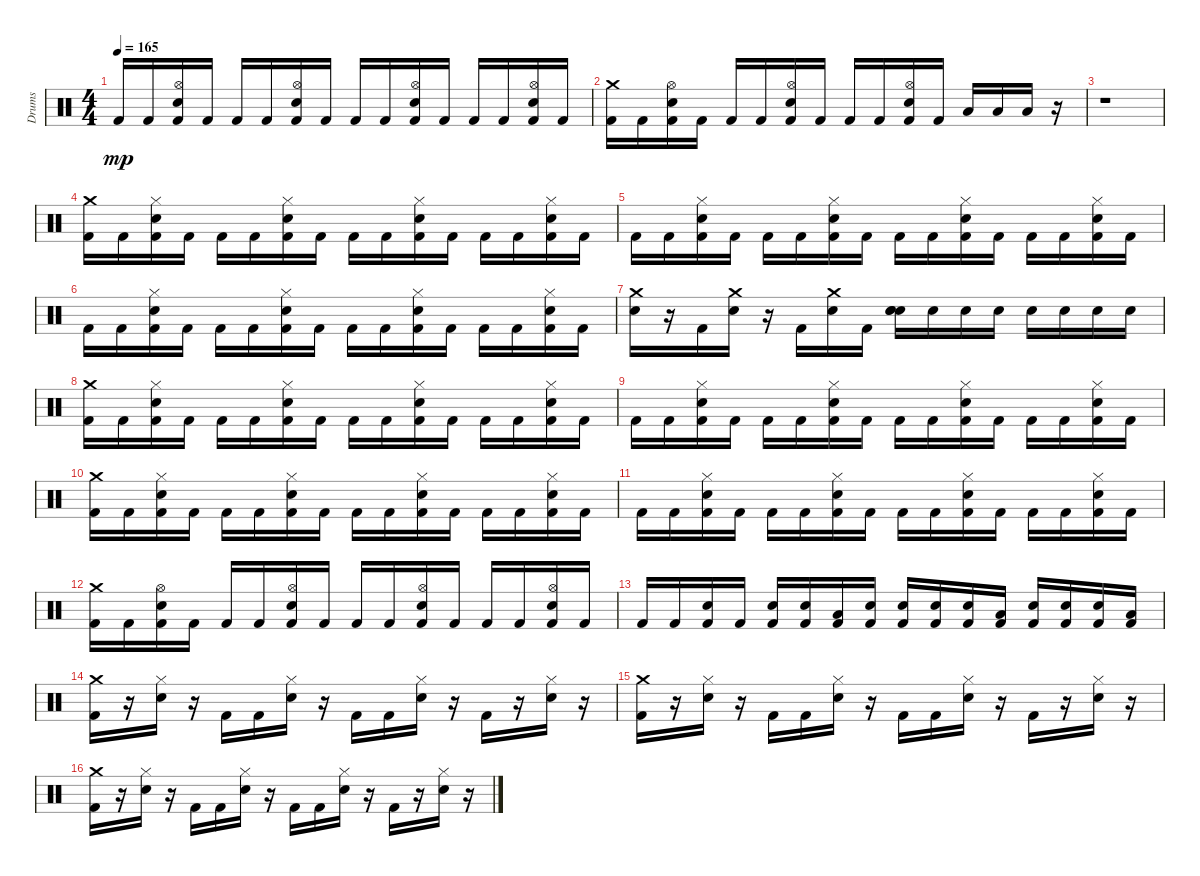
\track ("Drums" "Drums") {instrument percussion}
\staff {score}
\articulation defaults
\ts (4 4)
\tempo 165
\clef neutral
\ks c "Kick (hit) 2".16{dy mp} "Kick (hit) 2".16
("Hi-Hat (open)" "Electric Snare (hit)" "Kick (hit) 2").16 "Kick (hit) 2".16 "Kick (hit) 2".16 "Kick (hit) 2".16 ("Kick (hit) 2" "Hi-Hat (open)" "Electric Snare (hit)").16 "Kick (hit) 2".16 "Kick (hit) 2".16 "Kick (hit) 2".16 ("Electric Snare (hit)" "Kick (hit) 2" "Hi-Hat (open)").16 "Kick (hit) 2".16 "Kick (hit) 2".16 "Kick (hit) 2".16 ("Electric Snare (hit)" "Hi-Hat (open)" "Kick (hit) 2").16 "Kick (hit) 2".16 |
("Crash medium (hit)" "Kick (hit) 2").16 "Kick (hit) 2".16 ("Kick (hit) 2" "Electric Snare (hit)" "Hi-Hat (open)").16 "Kick (hit) 2".16 "Kick (hit) 2".16 "Kick (hit) 2".16 ("Kick (hit) 2" "Hi-Hat (open)" "Electric Snare (hit)").16 "Kick (hit) 2".16 "Kick (hit) 2".16 "Kick (hit) 2".16 ("Electric Snare (hit)" "Kick (hit) 2" "Hi-Hat (open)").16 "Kick (hit) 2".16 "Low Tom (hit)".16 "Low Tom (hit)".16 "Low Floor Tom (hit)".16 r.16 |
r.1 |
("Crash medium (hit)" "Kick (hit) 2").16 "Kick (hit) 2".16 ("Electric Snare (hit)" "Kick (hit) 2" "Hi-Hat (closed)").16 "Kick (hit) 2".16 "Kick (hit) 2".16 "Kick (hit) 2".16 ("Electric Snare (hit)" "Kick (hit) 2" "Hi-Hat (closed)").16 "Kick (hit) 2".16 "Kick (hit) 2".16 "Kick (hit) 2".16 ("Electric Snare (hit)" "Hi-Hat (closed)" "Kick (hit) 2").16 "Kick (hit) 2".16 "Kick (hit) 2".16 "Kick (hit) 2".16 ("Kick (hit) 2" "Hi-Hat (closed)" "Electric Snare (hit)").16 "Kick (hit) 2".16 |
"Kick (hit) 2".16 "Kick (hit) 2".16 ("Electric Snare (hit)" "Kick (hit) 2" "Hi-Hat (closed)").16 "Kick (hit) 2".16 "Kick (hit) 2".16 "Kick (hit) 2".16 ("Kick (hit) 2" "Electric Snare (hit)" "Hi-Hat (closed)").16 "Kick (hit) 2".16 "Kick (hit) 2".16 "Kick (hit) 2".16 ("Electric Snare (hit)" "Kick (hit) 2" "Hi-Hat (closed)").16 "Kick (hit) 2".16 "Kick (hit) 2".16 "Kick (hit) 2".16 ("Kick (hit) 2" "Electric Snare (hit)" "Hi-Hat (closed)").16 "Kick (hit) 2".16 |
"Kick (hit) 2".16 "Kick (hit) 2".16 ("Hi-Hat (closed)" "Kick (hit) 2" "Electric Snare (hit)").16 "Kick (hit) 2".16 "Kick (hit) 2".16 "Kick (hit) 2".16 ("Hi-Hat (closed)" "Electric Snare (hit)" "Kick (hit) 2").16 "Kick (hit) 2".16 "Kick (hit) 2".16 "Kick (hit) 2".16 ("Electric Snare (hit)" "Kick (hit) 2" "Hi-Hat (closed)").16 "Kick (hit) 2".16 "Kick (hit) 2".16 "Kick (hit) 2".16 ("Hi-Hat (closed)" "Electric Snare (hit)" "Kick (hit) 2").16 "Kick (hit) 2".16 |
("Crash medium (hit)" "Electric Snare (hit)").16 r.16 "Kick (hit) 2".16 ("Electric Snare (hit)" "Crash medium (hit)").16 r.16 "Kick (hit) 2".16 ("Electric Snare (hit)" "Crash medium (hit)").16 "Kick (hit) 2".16 ("Electric Snare (hit)" "Electric Snare (hit)" "Electric Snare (hit)").16 "Electric Snare (hit)".16 "Electric Snare (hit)".16 "Electric Snare (hit)".16 "Electric Snare (hit)".16 "Electric Snare (hit)".16 "Electric Snare (hit)".16 "Electric Snare (hit)".16 |
("Kick (hit) 2" "Crash medium (hit)").16 "Kick (hit) 2".16 ("Electric Snare (hit)" "Hi-Hat (closed)" "Kick (hit) 2").16 "Kick (hit) 2".16 "Kick (hit) 2".16 "Kick (hit) 2".16 ("Hi-Hat (closed)" "Kick (hit) 2" "Electric Snare (hit)").16 "Kick (hit) 2".16 "Kick (hit) 2".16 "Kick (hit) 2".16 ("Hi-Hat (closed)" "Electric Snare (hit)" "Kick (hit) 2").16 "Kick (hit) 2".16 "Kick (hit) 2".16 "Kick (hit) 2".16 ("Hi-Hat (closed)" "Kick (hit) 2" "Electric Snare (hit)").16 "Kick (hit) 2".16 |
"Kick (hit) 2".16 "Kick (hit) 2".16 ("Hi-Hat (closed)" "Electric Snare (hit)" "Kick (hit) 2").16 "Kick (hit) 2".16 "Kick (hit) 2".16 "Kick (hit) 2".16 ("Electric Snare (hit)" "Hi-Hat (closed)" "Kick (hit) 2").16 "Kick (hit) 2".16 "Kick (hit) 2".16 "Kick (hit) 2".16 ("Electric Snare (hit)" "Kick (hit) 2" "Hi-Hat (closed)").16 "Kick (hit) 2".16 "Kick (hit) 2".16 "Kick (hit) 2".16 ("Hi-Hat (closed)" "Kick (hit) 2" "Electric Snare (hit)").16 "Kick (hit) 2".16 |
("Kick (hit) 2" "Crash medium (hit)").16 "Kick (hit) 2".16 ("Electric Snare (hit)" "Kick (hit) 2" "Hi-Hat (closed)").16 "Kick (hit) 2".16 "Kick (hit) 2".16 "Kick (hit) 2".16 ("Electric Snare (hit)" "Hi-Hat (closed)" "Kick (hit) 2").16 "Kick (hit) 2".16 "Kick (hit) 2".16 "Kick (hit) 2".16 ("Electric Snare (hit)" "Hi-Hat (closed)" "Kick (hit) 2").16 "Kick (hit) 2".16 "Kick (hit) 2".16 "Kick (hit) 2".16 ("Electric Snare (hit)" "Hi-Hat (closed)" "Kick (hit) 2").16 "Kick (hit) 2".16 |
"Kick (hit) 2".16 "Kick (hit) 2".16 ("Kick (hit) 2" "Hi-Hat (closed)" "Electric Snare (hit)").16 "Kick (hit) 2".16 "Kick (hit) 2".16 "Kick (hit) 2".16 ("Hi-Hat (closed)" "Kick (hit) 2" "Electric Snare (hit)").16 "Kick (hit) 2".16 "Kick (hit) 2".16 "Kick (hit) 2".16 ("Hi-Hat (closed)" "Kick (hit) 2" "Electric Snare (hit)").16 "Kick (hit) 2".16 "Kick (hit) 2".16 "Kick (hit) 2".16 ("Kick (hit) 2" "Electric Snare (hit)" "Hi-Hat (closed)").16 "Kick (hit) 2".16 |
("Crash medium (hit)" "Kick (hit) 2").16 "Kick (hit) 2".16 ("Hi-Hat (open)" "Electric Snare (hit)" "Kick (hit) 2").16 "Kick (hit) 2".16 "Kick (hit) 2".16 "Kick (hit) 2".16 ("Electric Snare (hit)" "Kick (hit) 2" "Hi-Hat (open)").16 "Kick (hit) 2".16 "Kick (hit) 2".16 "Kick (hit) 2".16 ("Hi-Hat (open)" "Electric Snare (hit)" "Kick (hit) 2").16 "Kick (hit) 2".16 "Kick (hit) 2".16 "Kick (hit) 2".16 ("Kick (hit) 2" "Electric Snare (hit)" "Hi-Hat (open)").16 "Kick (hit) 2".16 |
"Kick (hit) 2".16 "Kick (hit) 2".16 ("Electric Snare (hit)" "Kick (hit) 2").16 "Kick (hit) 2".16 ("Kick (hit) 2" "Electric Snare (hit)").16 ("Electric Snare (hit)" "Kick (hit) 2").16 ("Kick (hit) 2" "Low Floor Tom (hit)").16 ("Electric Snare (hit)" "Kick (hit) 2").16 ("Electric Snare (hit)" "Kick (hit) 2").16 ("Electric Snare (hit)" "Kick (hit) 2").16 ("Electric Snare (hit)" "Kick (hit) 2").16 ("Kick (hit) 2" "Low Floor Tom (hit)").16 ("Electric Snare (hit)" "Kick (hit) 2").16 ("Kick (hit) 2" "Electric Snare (hit)").16 ("Electric Snare (hit)" "Kick (hit) 2").16 ("Low Floor Tom (hit)" "Kick (hit) 2").16 |
("Crash medium (hit)" "Kick (hit) 2").16 r.16 ("Electric Snare (hit)" "Hi-Hat (closed)").16 r.16 "Kick (hit) 2".16 "Kick (hit) 2".16 ("Hi-Hat (closed)" "Electric Snare (hit)").16 r.16 "Kick (hit) 2".16 "Kick (hit) 2".16 ("Electric Snare (hit)" "Hi-Hat (closed)").16 r.16 "Kick (hit) 2".16 r.16 ("Electric Snare (hit)" "Hi-Hat (closed)").16 r.16 |
("Kick (hit) 2" "Crash medium (hit)").16 r.16 ("Hi-Hat (closed)" "Electric Snare (hit)").16 r.16 "Kick (hit) 2".16 "Kick (hit) 2".16 ("Electric Snare (hit)" "Hi-Hat (closed)").16 r.16 "Kick (hit) 2".16 "Kick (hit) 2".16 ("Electric Snare (hit)" "Hi-Hat (closed)").16 r.16 "Kick (hit) 2".16 r.16 ("Electric Snare (hit)" "Hi-Hat (closed)").16 r.16 |
("Kick (hit) 2" "Crash medium (hit)").16 r.16 ("Hi-Hat (closed)" "Electric Snare (hit)").16 r.16 "Kick (hit) 2".16 "Kick (hit) 2".16 ("Hi-Hat (closed)" "Electric Snare (hit)").16 r.16 "Kick (hit) 2".16 "Kick (hit) 2".16 ("Electric Snare (hit)" "Hi-Hat (closed)").16 r.16 "Kick (hit) 2".16 r.16 ("Hi-Hat (closed)" "Electric Snare (hit)").16 r.16
